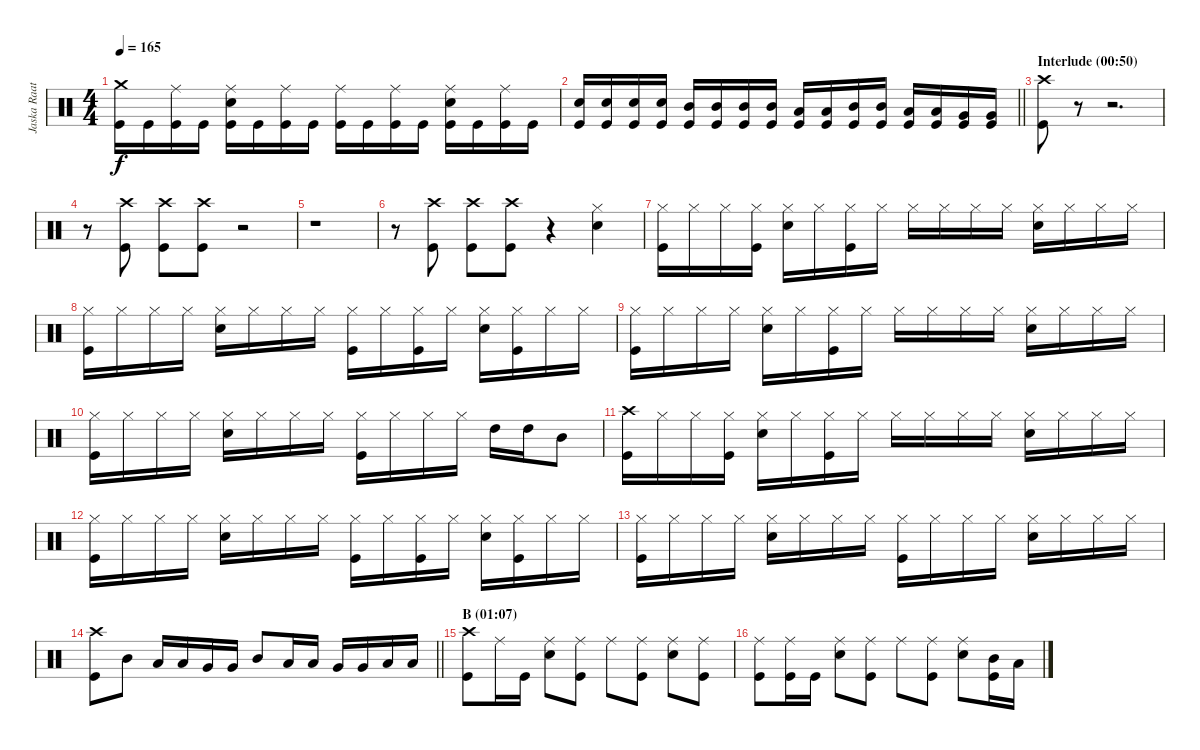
\track ("Jaska Raatikainen" "Jaska Raat") {instrument percussion}
\staff {score}
\articulation defaults
\ts (4 4)
\tempo 165
\clef neutral
\ks c
("Crash medium (hit)" "Kick (hit)").16{dy f} "Kick (hit)".16 ("Ride (middle)" "Kick (hit)").16 "Kick (hit)".16 ("Ride (middle)" "Electric Snare (hit)" "Kick (hit)").16 "Kick (hit)".16 ("Ride (middle)" "Kick (hit)").16 "Kick (hit)".16 ("Ride (middle)" "Kick (hit)").16 "Kick (hit)".16 ("Ride (middle)" "Kick (hit)").16 "Kick (hit)".16 ("Ride (middle)" "Electric Snare (hit)" "Kick (hit)").16 "Kick (hit)".16 ("Ride (middle)" "Kick (hit)").16 "Kick (hit)".16 |
\barLineRight lightlight
("Electric Snare (hit)" "Kick (hit)").16 ("Electric Snare (hit)" "Kick (hit)").16 ("Electric Snare (hit)" "Kick (hit)").16 ("Electric Snare (hit)" "Kick (hit)").16 ("Mid Tom (hit)" "Kick (hit)").16 ("Mid Tom (hit)" "Kick (hit)").16 ("Mid Tom (hit)" "Kick (hit)").16 ("Mid Tom (hit)" "Kick (hit)").16 ("Low Tom (hit)" "Kick (hit)").16 ("Low Tom (hit)" "Kick (hit)").16 ("Mid Tom (hit)" "Kick (hit)").16 ("Mid Tom (hit)" "Kick (hit)").16 ("Low Tom (hit)" "Kick (hit)").16 ("Low Tom (hit)" "Kick (hit)").16 ("Very Low Tom (hit)" "Kick (hit)").16 ("Very Low Tom (hit)" "Kick (hit)").16 |
\section ("" "Interlude (00:50)")
("Crash high (hit)" "Kick (hit)").8 r.8 r.2{d} |
r.8 ("Crash high (hit)" "Kick (hit)").8 ("Crash high (hit)" "Kick (hit)").8 ("Crash high (hit)" "Kick (hit)").8 r.2 |
r.1 |
r.8 ("Crash high (hit)" "Kick (hit)").8 ("Crash high (hit)" "Kick (hit)").8 ("Crash high (hit)" "Kick (hit)").8 r.4 ("Hi-Hat (closed)" "Electric Snare (hit)").4 |
("Hi-Hat (closed)" "Kick (hit)").16 "Hi-Hat (closed)".16 "Hi-Hat (closed)".16 ("Hi-Hat (closed)" "Kick (hit)").16 ("Hi-Hat (closed)" "Electric Snare (hit)").16 "Hi-Hat (closed)".16 ("Hi-Hat (closed)" "Kick (hit)").16 "Hi-Hat (closed)".16 "Hi-Hat (closed)".16 "Hi-Hat (closed)".16 "Hi-Hat (closed)".16 "Hi-Hat (closed)".16 ("Hi-Hat (closed)" "Electric Snare (hit)").16 "Hi-Hat (closed)".16 "Hi-Hat (closed)".16 "Hi-Hat (closed)".16 |
("Hi-Hat (closed)" "Kick (hit)").16 "Hi-Hat (closed)".16 "Hi-Hat (closed)".16 "Hi-Hat (closed)".16 ("Hi-Hat (closed)" "Electric Snare (hit)").16 "Hi-Hat (closed)".16 "Hi-Hat (closed)".16 "Hi-Hat (closed)".16 ("Hi-Hat (closed)" "Kick (hit)").16 "Hi-Hat (closed)".16 ("Hi-Hat (closed)" "Kick (hit)").16 "Hi-Hat (closed)".16 ("Hi-Hat (closed)" "Electric Snare (hit)").16 ("Hi-Hat (closed)" "Kick (hit)").16 "Hi-Hat (closed)".16 "Hi-Hat (closed)".16 |
("Hi-Hat (closed)" "Kick (hit)").16 "Hi-Hat (closed)".16 "Hi-Hat (closed)".16 "Hi-Hat (closed)".16 ("Hi-Hat (closed)" "Electric Snare (hit)").16 "Hi-Hat (closed)".16 ("Hi-Hat (closed)" "Kick (hit)").16 "Hi-Hat (closed)".16 "Hi-Hat (closed)".16 "Hi-Hat (closed)".16 "Hi-Hat (closed)".16 "Hi-Hat (closed)".16 ("Hi-Hat (closed)" "Electric Snare (hit)").16 "Hi-Hat (closed)".16 "Hi-Hat (closed)".16 "Hi-Hat (closed)".16 |
("Hi-Hat (closed)" "Kick (hit)").16 "Hi-Hat (closed)".16 "Hi-Hat (closed)".16 "Hi-Hat (closed)".16 ("Hi-Hat (closed)" "Electric Snare (hit)").16 "Hi-Hat (closed)".16 "Hi-Hat (closed)".16 "Hi-Hat (closed)".16 ("Hi-Hat (closed)" "Kick (hit)").16 "Hi-Hat (closed)".16 "Hi-Hat (closed)".16 "Hi-Hat (closed)".16 "High Tom (hit)".16 "High Tom (hit)".16 "Mid Tom (hit)".8 |
("Crash high (hit)" "Kick (hit)").16 "Hi-Hat (closed)".16 "Hi-Hat (closed)".16 ("Hi-Hat (closed)" "Kick (hit)").16 ("Hi-Hat (closed)" "Electric Snare (hit)").16 "Hi-Hat (closed)".16 ("Hi-Hat (closed)" "Kick (hit)").16 "Hi-Hat (closed)".16 "Hi-Hat (closed)".16 "Hi-Hat (closed)".16 "Hi-Hat (closed)".16 "Hi-Hat (closed)".16 ("Hi-Hat (closed)" "Electric Snare (hit)").16 "Hi-Hat (closed)".16 "Hi-Hat (closed)".16 "Hi-Hat (closed)".16 |
("Hi-Hat (closed)" "Kick (hit)").16 "Hi-Hat (closed)".16 "Hi-Hat (closed)".16 "Hi-Hat (closed)".16 ("Hi-Hat (closed)" "Electric Snare (hit)").16 "Hi-Hat (closed)".16 "Hi-Hat (closed)".16 "Hi-Hat (closed)".16 ("Hi-Hat (closed)" "Kick (hit)").16 "Hi-Hat (closed)".16 ("Hi-Hat (closed)" "Kick (hit)").16 "Hi-Hat (closed)".16 ("Hi-Hat (closed)" "Electric Snare (hit)").16 ("Hi-Hat (closed)" "Kick (hit)").16 "Hi-Hat (closed)".16 "Hi-Hat (closed)".16 |
("Hi-Hat (closed)" "Kick (hit)").16 "Hi-Hat (closed)".16 "Hi-Hat (closed)".16 "Hi-Hat (closed)".16 ("Hi-Hat (closed)" "Electric Snare (hit)").16 "Hi-Hat (closed)".16 "Hi-Hat (closed)".16 "Hi-Hat (closed)".16 ("Hi-Hat (closed)" "Kick (hit)").16 "Hi-Hat (closed)".16 "Hi-Hat (closed)".16 "Hi-Hat (closed)".16 ("Hi-Hat (closed)" "Electric Snare (hit)").16 "Hi-Hat (closed)".16 "Hi-Hat (closed)".16 "Hi-Hat (closed)".16 |
\barLineRight lightlight
("Crash high (hit)" "Kick (hit)").8 "Mid Tom (hit)".8 "Low Tom (hit)".16 "Low Tom (hit)".16 "Very Low Tom (hit)".16 "Very Low Tom (hit)".16 "Mid Tom (hit)".8 "Low Tom (hit)".16 "Low Tom (hit)".16 "Very Low Tom (hit)".16 "Very Low Tom (hit)".16 "Low Floor Tom (hit)".16 "Low Floor Tom (hit)".16 |
\section ("" "B (01:07)")
("Crash high (hit)" "Kick (hit)").8 "Ride (middle)".16 "Kick (hit)".16 ("Ride (middle)" "Electric Snare (hit)").8 ("Ride (middle)" "Kick (hit)").8 "Ride (middle)".8 ("Ride (middle)" "Kick (hit)").8 ("Ride (middle)" "Electric Snare (hit)").8 ("Ride (middle)" "Kick (hit)").8 |
("Ride (middle)" "Kick (hit)").8 ("Ride (middle)" "Kick (hit)").16 "Kick (hit)".16 ("Ride (middle)" "Electric Snare (hit)").8 ("Ride (middle)" "Kick (hit)").8 "Ride (middle)".8 ("Ride (middle)" "Kick (hit)").8 ("Ride (middle)" "Electric Snare (hit)").8 ("Mid Tom (hit)" "Kick (hit)").16 "Low Tom (hit)".16
